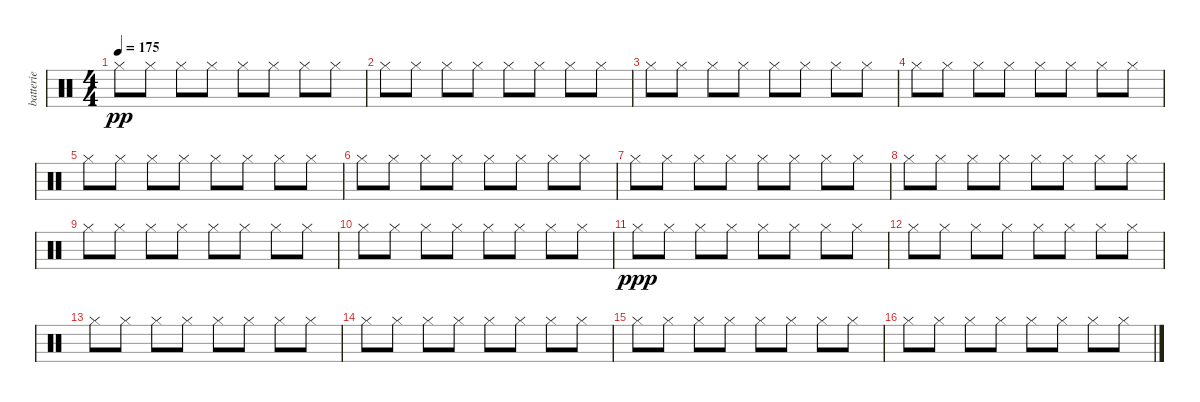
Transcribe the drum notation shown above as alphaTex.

\track ("batterie" "batterie") {instrument percussion}
\staff {score}
\articulation defaults
\ts (4 4)
\tempo 175
\clef neutral
\ks c "Hi-Hat (closed)".8{dy pp} "Hi-Hat (closed)".8 "Hi-Hat (closed)".8 "Hi-Hat (closed)".8 "Hi-Hat (closed)".8 "Hi-Hat (closed)".8 "Hi-Hat (closed)".8 "Hi-Hat (closed)".8
|
"Hi-Hat (closed)".8 "Hi-Hat (closed)".8 "Hi-Hat (closed)".8 "Hi-Hat (closed)".8 "Hi-Hat (closed)".8 "Hi-Hat (closed)".8 "Hi-Hat (closed)".8 "Hi-Hat (closed)".8 |
"Hi-Hat (closed)".8 "Hi-Hat (closed)".8 "Hi-Hat (closed)".8 "Hi-Hat (closed)".8 "Hi-Hat (closed)".8 "Hi-Hat (closed)".8 "Hi-Hat (closed)".8 "Hi-Hat (closed)".8 |
"Hi-Hat (closed)".8 "Hi-Hat (closed)".8 "Hi-Hat (closed)".8 "Hi-Hat (closed)".8 "Hi-Hat (closed)".8 "Hi-Hat (closed)".8 "Hi-Hat (closed)".8 "Hi-Hat (closed)".8 |
"Hi-Hat (closed)".8 "Hi-Hat (closed)".8 "Hi-Hat (closed)".8 "Hi-Hat (closed)".8 "Hi-Hat (closed)".8 "Hi-Hat (closed)".8 "Hi-Hat (closed)".8 "Hi-Hat (closed)".8 |
"Hi-Hat (closed)".8 "Hi-Hat (closed)".8 "Hi-Hat (closed)".8 "Hi-Hat (closed)".8 "Hi-Hat (closed)".8 "Hi-Hat (closed)".8 "Hi-Hat (closed)".8 "Hi-Hat (closed)".8 |
"Hi-Hat (closed)".8 "Hi-Hat (closed)".8 "Hi-Hat (closed)".8 "Hi-Hat (closed)".8 "Hi-Hat (closed)".8 "Hi-Hat (closed)".8 "Hi-Hat (closed)".8 "Hi-Hat (closed)".8 |
"Hi-Hat (closed)".8 "Hi-Hat (closed)".8 "Hi-Hat (closed)".8 "Hi-Hat (closed)".8 "Hi-Hat (closed)".8 "Hi-Hat (closed)".8 "Hi-Hat (closed)".8 "Hi-Hat (closed)".8 |
"Hi-Hat (closed)".8 "Hi-Hat (closed)".8 "Hi-Hat (closed)".8 "Hi-Hat (closed)".8 "Hi-Hat (closed)".8 "Hi-Hat (closed)".8 "Hi-Hat (closed)".8 "Hi-Hat (closed)".8 |
"Hi-Hat (closed)".8 "Hi-Hat (closed)".8 "Hi-Hat (closed)".8 "Hi-Hat (closed)".8 "Hi-Hat (closed)".8 "Hi-Hat (closed)".8 "Hi-Hat (closed)".8 "Hi-Hat (closed)".8 |
"Hi-Hat (closed)".8{dy ppp} "Hi-Hat (closed)".8 "Hi-Hat (closed)".8 "Hi-Hat (closed)".8 "Hi-Hat (closed)".8 "Hi-Hat (closed)".8 "Hi-Hat (closed)".8 "Hi-Hat (closed)".8 |
"Hi-Hat (closed)".8 "Hi-Hat (closed)".8 "Hi-Hat (closed)".8 "Hi-Hat (closed)".8 "Hi-Hat (closed)".8 "Hi-Hat (closed)".8 "Hi-Hat (closed)".8 "Hi-Hat (closed)".8 |
"Hi-Hat (closed)".8 "Hi-Hat (closed)".8 "Hi-Hat (closed)".8 "Hi-Hat (closed)".8 "Hi-Hat (closed)".8 "Hi-Hat (closed)".8 "Hi-Hat (closed)".8 "Hi-Hat (closed)".8 |
"Hi-Hat (closed)".8 "Hi-Hat (closed)".8 "Hi-Hat (closed)".8 "Hi-Hat (closed)".8 "Hi-Hat (closed)".8 "Hi-Hat (closed)".8 "Hi-Hat (closed)".8 "Hi-Hat (closed)".8 |
"Hi-Hat (closed)".8 "Hi-Hat (closed)".8 "Hi-Hat (closed)".8 "Hi-Hat (closed)".8 "Hi-Hat (closed)".8 "Hi-Hat (closed)".8 "Hi-Hat (closed)".8 "Hi-Hat (closed)".8 |
"Hi-Hat (closed)".8 "Hi-Hat (closed)".8 "Hi-Hat (closed)".8 "Hi-Hat (closed)".8 "Hi-Hat (closed)".8 "Hi-Hat (closed)".8 "Hi-Hat (closed)".8 "Hi-Hat (closed)".8
